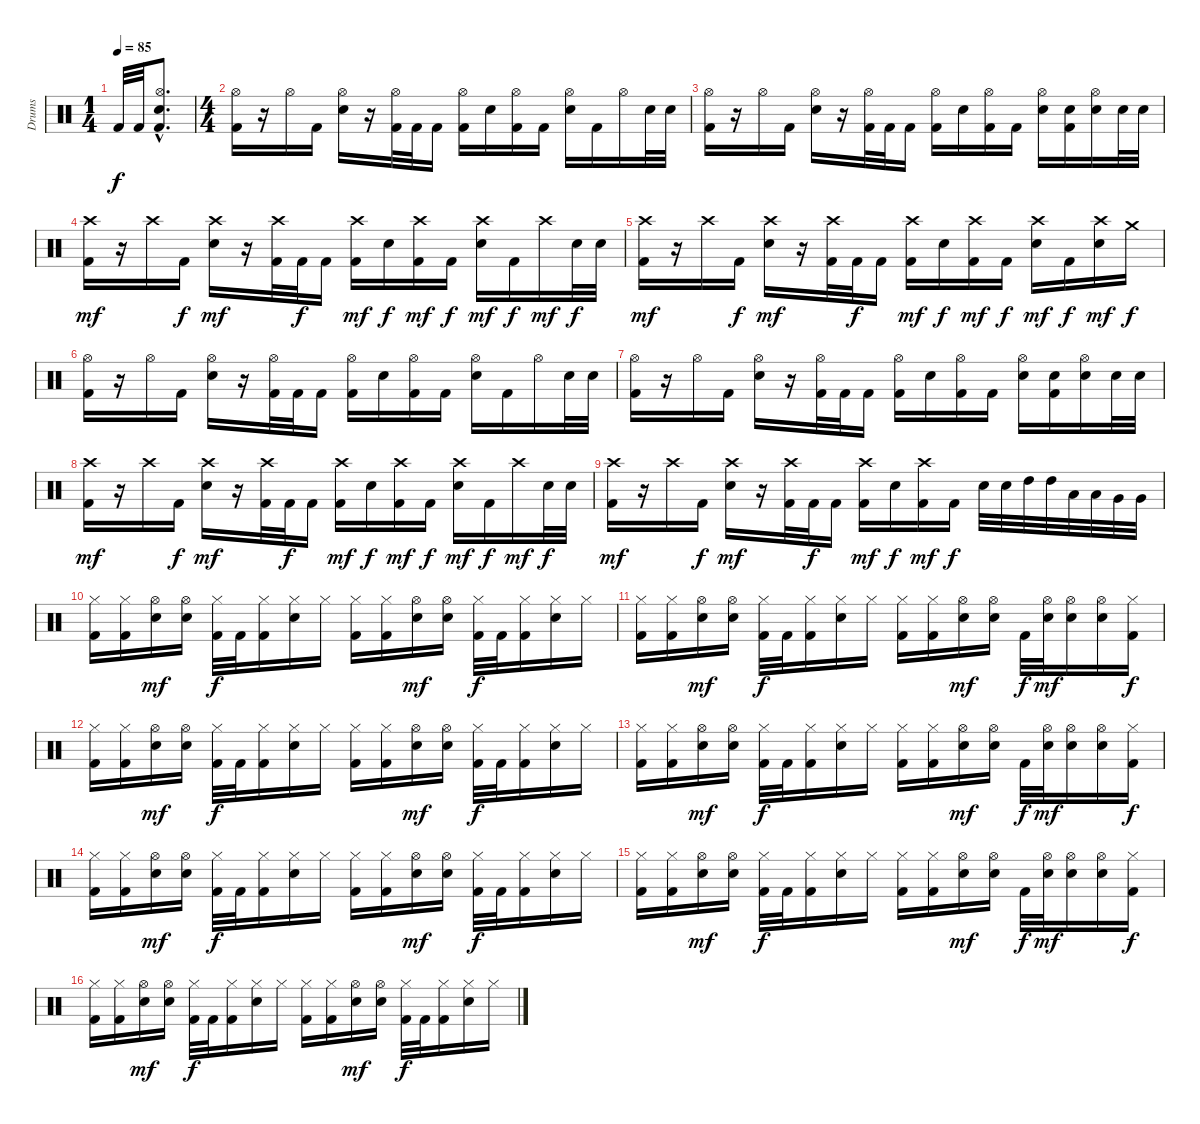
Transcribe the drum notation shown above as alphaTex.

\track ("Drums" "Drums") {instrument percussion}
\staff {score}
\articulation defaults
\ts (1 4)
\tempo 85
\clef neutral
\ks c "Kick (hit) 2".32{dy f} "Kick (hit) 2".32
("Hi-Hat (open)"{hac} "Snare (hit) 2"{hac} "Kick (hit) 2"{hac}).8{d} |
\ts (4 4)
("Hi-Hat (open)" "Kick (hit) 2").16 r.16 "Hi-Hat (open)".16 "Kick (hit) 2".16 ("Hi-Hat (open)" "Snare (hit) 2").16 r.16 ("Hi-Hat (open)" "Kick (hit) 2").32 "Kick (hit) 2".32 "Kick (hit) 2".16 ("Hi-Hat (open)" "Kick (hit) 2").16 "Snare (hit) 2".16 ("Hi-Hat (open)" "Kick (hit) 2").16 "Kick (hit) 2".16 ("Hi-Hat (open)" "Snare (hit) 2").16 "Kick (hit) 2".16 "Hi-Hat (open)".16 "Snare (hit) 2".32 "Snare (hit) 2".32 |
("Hi-Hat (open)" "Kick (hit) 2").16 r.16 "Hi-Hat (open)".16 "Kick (hit) 2".16 ("Hi-Hat (open)" "Snare (hit) 2").16 r.16 ("Hi-Hat (open)" "Kick (hit) 2").32 "Kick (hit) 2".32 "Kick (hit) 2".16 ("Hi-Hat (open)" "Kick (hit) 2").16 "Snare (hit) 2".16 ("Hi-Hat (open)" "Kick (hit) 2").16 "Kick (hit) 2".16 ("Hi-Hat (open)" "Snare (hit) 2").16 ("Snare (hit) 2" "Kick (hit) 2").16 ("Hi-Hat (open)" "Snare (hit) 2").16 "Snare (hit) 2".32 "Snare (hit) 2".32 |
("Crash high (hit)" "Kick (hit) 2").16{dy mf} r.16 "Crash high (hit)".16 "Kick (hit) 2".16{dy f} ("Crash high (hit)" "Snare (hit) 2").16{dy mf} r.16 ("Crash high (hit)" "Kick (hit) 2").32 "Kick (hit) 2".32{dy f} "Kick (hit) 2".16 ("Crash high (hit)" "Kick (hit) 2").16{dy mf} "Snare (hit) 2".16{dy f} ("Crash high (hit)" "Kick (hit) 2").16{dy mf} "Kick (hit) 2".16{dy f} ("Crash high (hit)" "Snare (hit) 2").16{dy mf} "Kick (hit) 2".16{dy f} "Crash high (hit)".16{dy mf} "Snare (hit) 2".32{dy f} "Snare (hit) 2".32 |
("Crash high (hit)" "Kick (hit) 2").16{dy mf} r.16 "Crash high (hit)".16 "Kick (hit) 2".16{dy f} ("Crash high (hit)" "Snare (hit) 2").16{dy mf} r.16 ("Crash high (hit)" "Kick (hit) 2").32 "Kick (hit) 2".32{dy f} "Kick (hit) 2".16 ("Crash high (hit)" "Kick (hit) 2").16{dy mf} "Snare (hit) 2".16{dy f} ("Crash high (hit)" "Kick (hit) 2").16{dy mf} "Kick (hit) 2".16{dy f} ("Crash high (hit)" "Snare (hit) 2").16{dy mf} "Kick (hit) 2".16{dy f} ("Crash high (hit)" "Snare (hit) 2").16{dy mf} "Crash medium (hit)".16{dy f} |
("Hi-Hat (open)" "Kick (hit) 2").16 r.16 "Hi-Hat (open)".16 "Kick (hit) 2".16 ("Hi-Hat (open)" "Snare (hit) 2").16 r.16 ("Hi-Hat (open)" "Kick (hit) 2").32 "Kick (hit) 2".32 "Kick (hit) 2".16 ("Hi-Hat (open)" "Kick (hit) 2").16 "Snare (hit) 2".16 ("Hi-Hat (open)" "Kick (hit) 2").16 "Kick (hit) 2".16 ("Hi-Hat (open)" "Snare (hit) 2").16 "Kick (hit) 2".16 "Hi-Hat (open)".16 "Snare (hit) 2".32 "Snare (hit) 2".32 |
("Hi-Hat (open)" "Kick (hit) 2").16 r.16 "Hi-Hat (open)".16 "Kick (hit) 2".16 ("Hi-Hat (open)" "Snare (hit) 2").16 r.16 ("Hi-Hat (open)" "Kick (hit) 2").32 "Kick (hit) 2".32 "Kick (hit) 2".16 ("Hi-Hat (open)" "Kick (hit) 2").16 "Snare (hit) 2".16 ("Hi-Hat (open)" "Kick (hit) 2").16 "Kick (hit) 2".16 ("Hi-Hat (open)" "Snare (hit) 2").16 ("Snare (hit) 2" "Kick (hit) 2").16 ("Hi-Hat (open)" "Snare (hit) 2").16 "Snare (hit) 2".32 "Snare (hit) 2".32 |
("Crash high (hit)" "Kick (hit) 2").16{dy mf} r.16 "Crash high (hit)".16 "Kick (hit) 2".16{dy f} ("Crash high (hit)" "Snare (hit) 2").16{dy mf} r.16 ("Crash high (hit)" "Kick (hit) 2").32 "Kick (hit) 2".32{dy f} "Kick (hit) 2".16 ("Crash high (hit)" "Kick (hit) 2").16{dy mf} "Snare (hit) 2".16{dy f} ("Crash high (hit)" "Kick (hit) 2").16{dy mf} "Kick (hit) 2".16{dy f} ("Crash high (hit)" "Snare (hit) 2").16{dy mf} "Kick (hit) 2".16{dy f} "Crash high (hit)".16{dy mf} "Snare (hit) 2".32{dy f} "Snare (hit) 2".32 |
("Crash high (hit)" "Kick (hit) 2").16{dy mf} r.16 "Crash high (hit)".16 "Kick (hit) 2".16{dy f} ("Crash high (hit)" "Snare (hit) 2").16{dy mf} r.16 ("Crash high (hit)" "Kick (hit) 2").32 "Kick (hit) 2".32{dy f} "Kick (hit) 2".16 ("Crash high (hit)" "Kick (hit) 2").16{dy mf} "Snare (hit) 2".16{dy f} ("Crash high (hit)" "Kick (hit) 2").16{dy mf} "Kick (hit) 2".16{dy f} "Snare (hit) 2".32 "Snare (hit) 2".32 "High Tom (hit)".32 "High Tom (hit)".32 "Low Tom (hit)".32 "Low Tom (hit)".32 "Very Low Tom (hit)".32 "Very Low Tom (hit)".32 |
("Hi-Hat (closed)" "Kick (hit) 2").16 ("Hi-Hat (closed)" "Kick (hit) 2").16 ("Hi-Hat (open)" "Snare (hit) 2").16{dy mf} ("Hi-Hat (open)" "Snare (hit) 2").16 ("Hi-Hat (closed)" "Kick (hit) 2").32{dy f} "Kick (hit) 2".32 ("Hi-Hat (closed)" "Kick (hit) 2").16 ("Hi-Hat (closed)" "Snare (hit) 2").16 "Hi-Hat (closed)".16 ("Hi-Hat (closed)" "Kick (hit) 2").16 ("Hi-Hat (closed)" "Kick (hit) 2").16 ("Hi-Hat (open)" "Snare (hit) 2").16{dy mf} ("Hi-Hat (open)" "Snare (hit) 2").16 ("Hi-Hat (closed)" "Kick (hit) 2").32{dy f} "Kick (hit) 2".32 ("Hi-Hat (closed)" "Kick (hit) 2").16 ("Hi-Hat (closed)" "Snare (hit) 2").16 "Hi-Hat (closed)".16 |
("Hi-Hat (closed)" "Kick (hit) 2").16 ("Hi-Hat (closed)" "Kick (hit) 2").16 ("Hi-Hat (open)" "Snare (hit) 2").16{dy mf} ("Hi-Hat (open)" "Snare (hit) 2").16 ("Hi-Hat (closed)" "Kick (hit) 2").32{dy f} "Kick (hit) 2".32 ("Hi-Hat (closed)" "Kick (hit) 2").16 ("Hi-Hat (closed)" "Snare (hit) 2").16 "Hi-Hat (closed)".16 ("Hi-Hat (closed)" "Kick (hit) 2").16 ("Hi-Hat (closed)" "Kick (hit) 2").16 ("Hi-Hat (open)" "Snare (hit) 2").16{dy mf} ("Hi-Hat (open)" "Snare (hit) 2").16 "Kick (hit) 2".32{dy f} ("Hi-Hat (open)" "Snare (hit) 2").32{dy mf} ("Hi-Hat (open)" "Snare (hit) 2").16 ("Hi-Hat (open)" "Snare (hit) 2").16 ("Hi-Hat (closed)" "Kick (hit) 2").16{dy f} |
("Hi-Hat (closed)" "Kick (hit) 2").16 ("Hi-Hat (closed)" "Kick (hit) 2").16 ("Hi-Hat (open)" "Snare (hit) 2").16{dy mf} ("Hi-Hat (open)" "Snare (hit) 2").16 ("Hi-Hat (closed)" "Kick (hit) 2").32{dy f} "Kick (hit) 2".32 ("Hi-Hat (closed)" "Kick (hit) 2").16 ("Hi-Hat (closed)" "Snare (hit) 2").16 "Hi-Hat (closed)".16 ("Hi-Hat (closed)" "Kick (hit) 2").16 ("Hi-Hat (closed)" "Kick (hit) 2").16 ("Hi-Hat (open)" "Snare (hit) 2").16{dy mf} ("Hi-Hat (open)" "Snare (hit) 2").16 ("Hi-Hat (closed)" "Kick (hit) 2").32{dy f} "Kick (hit) 2".32 ("Hi-Hat (closed)" "Kick (hit) 2").16 ("Hi-Hat (closed)" "Snare (hit) 2").16 "Hi-Hat (closed)".16 |
("Hi-Hat (closed)" "Kick (hit) 2").16 ("Hi-Hat (closed)" "Kick (hit) 2").16 ("Hi-Hat (open)" "Snare (hit) 2").16{dy mf} ("Hi-Hat (open)" "Snare (hit) 2").16 ("Hi-Hat (closed)" "Kick (hit) 2").32{dy f} "Kick (hit) 2".32 ("Hi-Hat (closed)" "Kick (hit) 2").16 ("Hi-Hat (closed)" "Snare (hit) 2").16 "Hi-Hat (closed)".16 ("Hi-Hat (closed)" "Kick (hit) 2").16 ("Hi-Hat (closed)" "Kick (hit) 2").16 ("Hi-Hat (open)" "Snare (hit) 2").16{dy mf} ("Hi-Hat (open)" "Snare (hit) 2").16 "Kick (hit) 2".32{dy f} ("Hi-Hat (open)" "Snare (hit) 2").32{dy mf} ("Hi-Hat (open)" "Snare (hit) 2").16 ("Hi-Hat (open)" "Snare (hit) 2").16 ("Hi-Hat (closed)" "Kick (hit) 2").16{dy f} |
("Hi-Hat (closed)" "Kick (hit) 2").16 ("Hi-Hat (closed)" "Kick (hit) 2").16 ("Hi-Hat (open)" "Snare (hit) 2").16{dy mf} ("Hi-Hat (open)" "Snare (hit) 2").16 ("Hi-Hat (closed)" "Kick (hit) 2").32{dy f} "Kick (hit) 2".32 ("Hi-Hat (closed)" "Kick (hit) 2").16 ("Hi-Hat (closed)" "Snare (hit) 2").16 "Hi-Hat (closed)".16 ("Hi-Hat (closed)" "Kick (hit) 2").16 ("Hi-Hat (closed)" "Kick (hit) 2").16 ("Hi-Hat (open)" "Snare (hit) 2").16{dy mf} ("Hi-Hat (open)" "Snare (hit) 2").16 ("Hi-Hat (closed)" "Kick (hit) 2").32{dy f} "Kick (hit) 2".32 ("Hi-Hat (closed)" "Kick (hit) 2").16 ("Hi-Hat (closed)" "Snare (hit) 2").16 "Hi-Hat (closed)".16 |
("Hi-Hat (closed)" "Kick (hit) 2").16 ("Hi-Hat (closed)" "Kick (hit) 2").16 ("Hi-Hat (open)" "Snare (hit) 2").16{dy mf} ("Hi-Hat (open)" "Snare (hit) 2").16 ("Hi-Hat (closed)" "Kick (hit) 2").32{dy f} "Kick (hit) 2".32 ("Hi-Hat (closed)" "Kick (hit) 2").16 ("Hi-Hat (closed)" "Snare (hit) 2").16 "Hi-Hat (closed)".16 ("Hi-Hat (closed)" "Kick (hit) 2").16 ("Hi-Hat (closed)" "Kick (hit) 2").16 ("Hi-Hat (open)" "Snare (hit) 2").16{dy mf} ("Hi-Hat (open)" "Snare (hit) 2").16 "Kick (hit) 2".32{dy f} ("Hi-Hat (open)" "Snare (hit) 2").32{dy mf} ("Hi-Hat (open)" "Snare (hit) 2").16 ("Hi-Hat (open)" "Snare (hit) 2").16 ("Hi-Hat (closed)" "Kick (hit) 2").16{dy f} |
("Hi-Hat (closed)" "Kick (hit) 2").16 ("Hi-Hat (closed)" "Kick (hit) 2").16 ("Hi-Hat (open)" "Snare (hit) 2").16{dy mf} ("Hi-Hat (open)" "Snare (hit) 2").16 ("Hi-Hat (closed)" "Kick (hit) 2").32{dy f} "Kick (hit) 2".32 ("Hi-Hat (closed)" "Kick (hit) 2").16 ("Hi-Hat (closed)" "Snare (hit) 2").16 "Hi-Hat (closed)".16 ("Hi-Hat (closed)" "Kick (hit) 2").16 ("Hi-Hat (closed)" "Kick (hit) 2").16 ("Hi-Hat (open)" "Snare (hit) 2").16{dy mf} ("Hi-Hat (open)" "Snare (hit) 2").16 ("Hi-Hat (closed)" "Kick (hit) 2").32{dy f} "Kick (hit) 2".32 ("Hi-Hat (closed)" "Kick (hit) 2").16 ("Hi-Hat (closed)" "Snare (hit) 2").16 "Hi-Hat (closed)".16
